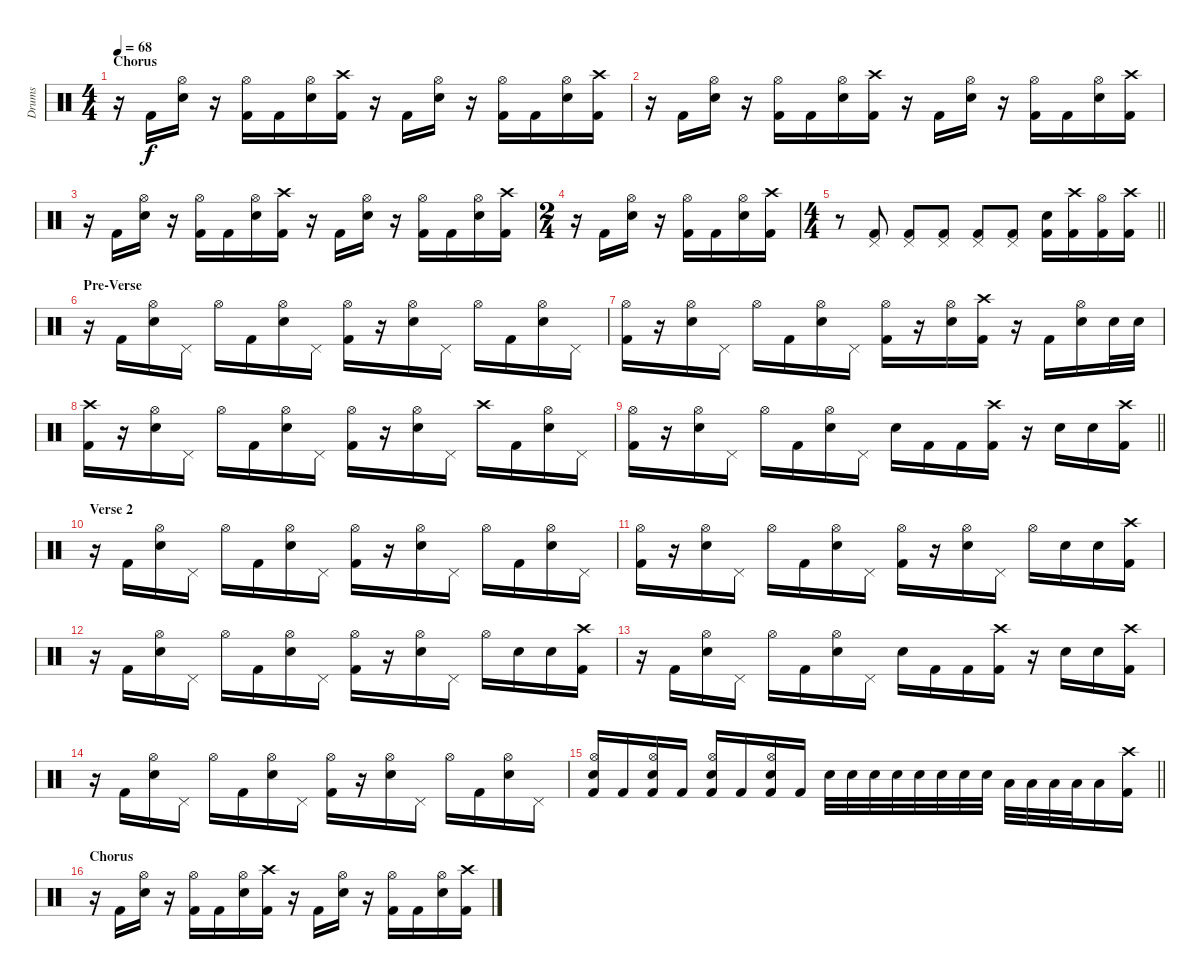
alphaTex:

\track ("Drums" "Drums") {instrument percussion}
\staff {score}
\articulation defaults
\ts (4 4)
\section ("" "Chorus")
\tempo 68
\clef neutral
\ks c
r.16{dy f} "Kick (hit) 2".16 ("Hi-Hat (open)" "Snare (hit) 2").16 r.16 ("Hi-Hat (open)" "Kick (hit) 2").16 "Kick (hit) 2".16 ("Hi-Hat (open)" "Snare (hit) 2").16 ("Crash high (hit)" "Kick (hit) 2").16 r.16 "Kick (hit) 2".16 ("Hi-Hat (open)" "Snare (hit) 2").16 r.16 ("Hi-Hat (open)" "Kick (hit) 2").16 "Kick (hit) 2".16 ("Hi-Hat (open)" "Snare (hit) 2").16 ("Crash high (hit)" "Kick (hit) 2").16 |
r.16 "Kick (hit) 2".16 ("Hi-Hat (open)" "Snare (hit) 2").16 r.16 ("Hi-Hat (open)" "Kick (hit) 2").16 "Kick (hit) 2".16 ("Hi-Hat (open)" "Snare (hit) 2").16 ("Crash high (hit)" "Kick (hit) 2").16 r.16 "Kick (hit) 2".16 ("Hi-Hat (open)" "Snare (hit) 2").16 r.16 ("Hi-Hat (open)" "Kick (hit) 2").16 "Kick (hit) 2".16 ("Hi-Hat (open)" "Snare (hit) 2").16 ("Crash high (hit)" "Kick (hit) 2").16 |
r.16 "Kick (hit) 2".16 ("Hi-Hat (open)" "Snare (hit) 2").16 r.16 ("Hi-Hat (open)" "Kick (hit) 2").16 "Kick (hit) 2".16 ("Hi-Hat (open)" "Snare (hit) 2").16 ("Crash high (hit)" "Kick (hit) 2").16 r.16 "Kick (hit) 2".16 ("Hi-Hat (open)" "Snare (hit) 2").16 r.16 ("Hi-Hat (open)" "Kick (hit) 2").16 "Kick (hit) 2".16 ("Hi-Hat (open)" "Snare (hit) 2").16 ("Crash high (hit)" "Kick (hit) 2").16 |
\ts (2 4)
r.16 "Kick (hit) 2".16 ("Hi-Hat (open)" "Snare (hit) 2").16 r.16 ("Hi-Hat (open)" "Kick (hit) 2").16 "Kick (hit) 2".16 ("Hi-Hat (open)" "Snare (hit) 2").16 ("Crash high (hit)" "Kick (hit) 2").16 |
\ts (4 4)
\barLineRight lightlight
r.8 ("Pedal Hi-Hat (hit)" "Kick (hit) 2").8 ("Pedal Hi-Hat (hit)" "Kick (hit) 2").8 ("Pedal Hi-Hat (hit)" "Kick (hit) 2").8 ("Pedal Hi-Hat (hit)" "Kick (hit) 2").8 ("Pedal Hi-Hat (hit)" "Kick (hit) 2").8 ("Snare (hit) 2" "Kick (hit) 2").16 ("Crash high (hit)" "Kick (hit) 2").16 ("Hi-Hat (open)" "Kick (hit) 2").16 ("Crash high (hit)" "Kick (hit) 2").16 |
\section ("" "Pre-Verse")
r.16 "Kick (hit) 2".16 ("Hi-Hat (open)" "Snare (hit) 2").16 "Pedal Hi-Hat (hit)".16 "Hi-Hat (open)".16 "Kick (hit) 2".16 ("Hi-Hat (open)" "Snare (hit) 2").16 "Pedal Hi-Hat (hit)".16 ("Hi-Hat (open)" "Kick (hit) 2").16 r.16 ("Hi-Hat (open)" "Snare (hit) 2").16 "Pedal Hi-Hat (hit)".16 "Hi-Hat (open)".16 "Kick (hit) 2".16 ("Hi-Hat (open)" "Snare (hit) 2").16 "Pedal Hi-Hat (hit)".16 |
("Hi-Hat (open)" "Kick (hit) 2").16 r.16 ("Hi-Hat (open)" "Snare (hit) 2").16 "Pedal Hi-Hat (hit)".16 "Hi-Hat (open)".16 "Kick (hit) 2".16 ("Hi-Hat (open)" "Snare (hit) 2").16 "Pedal Hi-Hat (hit)".16 ("Hi-Hat (open)" "Kick (hit) 2").16 r.16 ("Hi-Hat (open)" "Snare (hit) 2").16 ("Crash high (hit)" "Kick (hit) 2").16 r.16 "Kick (hit) 2".16 ("Hi-Hat (open)" "Snare (hit) 2").16 "Snare (hit) 2".32 "Snare (hit) 2".32 |
("Crash high (hit)" "Kick (hit) 2").16 r.16 ("Hi-Hat (open)" "Snare (hit) 2").16 "Pedal Hi-Hat (hit)".16 "Hi-Hat (open)".16 "Kick (hit) 2".16 ("Hi-Hat (open)" "Snare (hit) 2").16 "Pedal Hi-Hat (hit)".16 ("Hi-Hat (open)" "Kick (hit) 2").16 r.16 ("Hi-Hat (open)" "Snare (hit) 2").16 "Pedal Hi-Hat (hit)".16 "Crash high (hit)".16 "Kick (hit) 2".16 ("Hi-Hat (open)" "Snare (hit) 2").16 "Pedal Hi-Hat (hit)".16 |
\barLineRight lightlight
("Hi-Hat (open)" "Kick (hit) 2").16 r.16 ("Hi-Hat (open)" "Snare (hit) 2").16 "Pedal Hi-Hat (hit)".16 "Hi-Hat (open)".16 "Kick (hit) 2".16 ("Hi-Hat (open)" "Snare (hit) 2").16 "Pedal Hi-Hat (hit)".16 "Snare (hit) 2".16 "Kick (hit) 2".16 "Kick (hit) 2".16 ("Crash high (hit)" "Kick (hit) 2").16 r.16 "Snare (hit) 2".16 "Snare (hit) 2".16 ("Crash high (hit)" "Kick (hit) 2").16 |
\section ("" "Verse 2")
r.16 "Kick (hit) 2".16 ("Hi-Hat (open)" "Snare (hit) 2").16 "Pedal Hi-Hat (hit)".16 "Hi-Hat (open)".16 "Kick (hit) 2".16 ("Hi-Hat (open)" "Snare (hit) 2").16 "Pedal Hi-Hat (hit)".16 ("Hi-Hat (open)" "Kick (hit) 2").16 r.16 ("Hi-Hat (open)" "Snare (hit) 2").16 "Pedal Hi-Hat (hit)".16 "Hi-Hat (open)".16 "Kick (hit) 2".16 ("Hi-Hat (open)" "Snare (hit) 2").16 "Pedal Hi-Hat (hit)".16 |
("Hi-Hat (open)" "Kick (hit) 2").16 r.16 ("Hi-Hat (open)" "Snare (hit) 2").16 "Pedal Hi-Hat (hit)".16 "Hi-Hat (open)".16 "Kick (hit) 2".16 ("Hi-Hat (open)" "Snare (hit) 2").16 "Pedal Hi-Hat (hit)".16 ("Hi-Hat (open)" "Kick (hit) 2").16 r.16 ("Hi-Hat (open)" "Snare (hit) 2").16 "Pedal Hi-Hat (hit)".16 "Hi-Hat (open)".16 "Snare (hit) 2".16 "Snare (hit) 2".16 ("Crash high (hit)" "Kick (hit) 2").16 |
r.16 "Kick (hit) 2".16 ("Hi-Hat (open)" "Snare (hit) 2").16 "Pedal Hi-Hat (hit)".16 "Hi-Hat (open)".16 "Kick (hit) 2".16 ("Hi-Hat (open)" "Snare (hit) 2").16 "Pedal Hi-Hat (hit)".16 ("Hi-Hat (open)" "Kick (hit) 2").16 r.16 ("Hi-Hat (open)" "Snare (hit) 2").16 "Pedal Hi-Hat (hit)".16 "Hi-Hat (open)".16 "Snare (hit) 2".16 "Snare (hit) 2".16 ("Crash high (hit)" "Kick (hit) 2").16 |
r.16 "Kick (hit) 2".16 ("Hi-Hat (open)" "Snare (hit) 2").16 "Pedal Hi-Hat (hit)".16 "Hi-Hat (open)".16 "Kick (hit) 2".16 ("Hi-Hat (open)" "Snare (hit) 2").16 "Pedal Hi-Hat (hit)".16 "Snare (hit) 2".16 "Kick (hit) 2".16 "Kick (hit) 2".16 ("Crash high (hit)" "Kick (hit) 2").16 r.16 "Snare (hit) 2".16 "Snare (hit) 2".16 ("Crash high (hit)" "Kick (hit) 2").16 |
r.16 "Kick (hit) 2".16 ("Hi-Hat (open)" "Snare (hit) 2").16 "Pedal Hi-Hat (hit)".16 "Hi-Hat (open)".16 "Kick (hit) 2".16 ("Hi-Hat (open)" "Snare (hit) 2").16 "Pedal Hi-Hat (hit)".16 ("Hi-Hat (open)" "Kick (hit) 2").16 r.16 ("Hi-Hat (open)" "Snare (hit) 2").16 "Pedal Hi-Hat (hit)".16 "Hi-Hat (open)".16 "Kick (hit) 2".16 ("Hi-Hat (open)" "Snare (hit) 2").16 "Pedal Hi-Hat (hit)".16 |
\barLineRight lightlight
("Hi-Hat (open)" "Snare (hit) 2" "Kick (hit) 2").16 "Kick (hit) 2".16 ("Hi-Hat (open)" "Snare (hit) 2" "Kick (hit) 2").16 "Kick (hit) 2".16 ("Hi-Hat (open)" "Snare (hit) 2" "Kick (hit) 2").16 "Kick (hit) 2".16 ("Hi-Hat (open)" "Snare (hit) 2" "Kick (hit) 2").16 "Kick (hit) 2".16 "Snare (hit) 2".32 "Snare (hit) 2".32 "Snare (hit) 2".32 "Snare (hit) 2".32 "Snare (hit) 2".32 "Snare (hit) 2".32 "Snare (hit) 2".32 "Snare (hit) 2".32 "Low Tom (hit)".32 "Low Tom (hit)".32 "Low Tom (hit)".32 "Low Tom (hit)".32 "Low Tom (hit)".16 ("Crash high (hit)" "Kick (hit) 2").16 |
\section ("" "Chorus")
r.16 "Kick (hit) 2".16 ("Hi-Hat (open)" "Snare (hit) 2").16 r.16 ("Hi-Hat (open)" "Kick (hit) 2").16 "Kick (hit) 2".16 ("Hi-Hat (open)" "Snare (hit) 2").16 ("Crash high (hit)" "Kick (hit) 2").16 r.16 "Kick (hit) 2".16 ("Hi-Hat (open)" "Snare (hit) 2").16 r.16 ("Hi-Hat (open)" "Kick (hit) 2").16 "Kick (hit) 2".16 ("Hi-Hat (open)" "Snare (hit) 2").16 ("Crash high (hit)" "Kick (hit) 2").16
